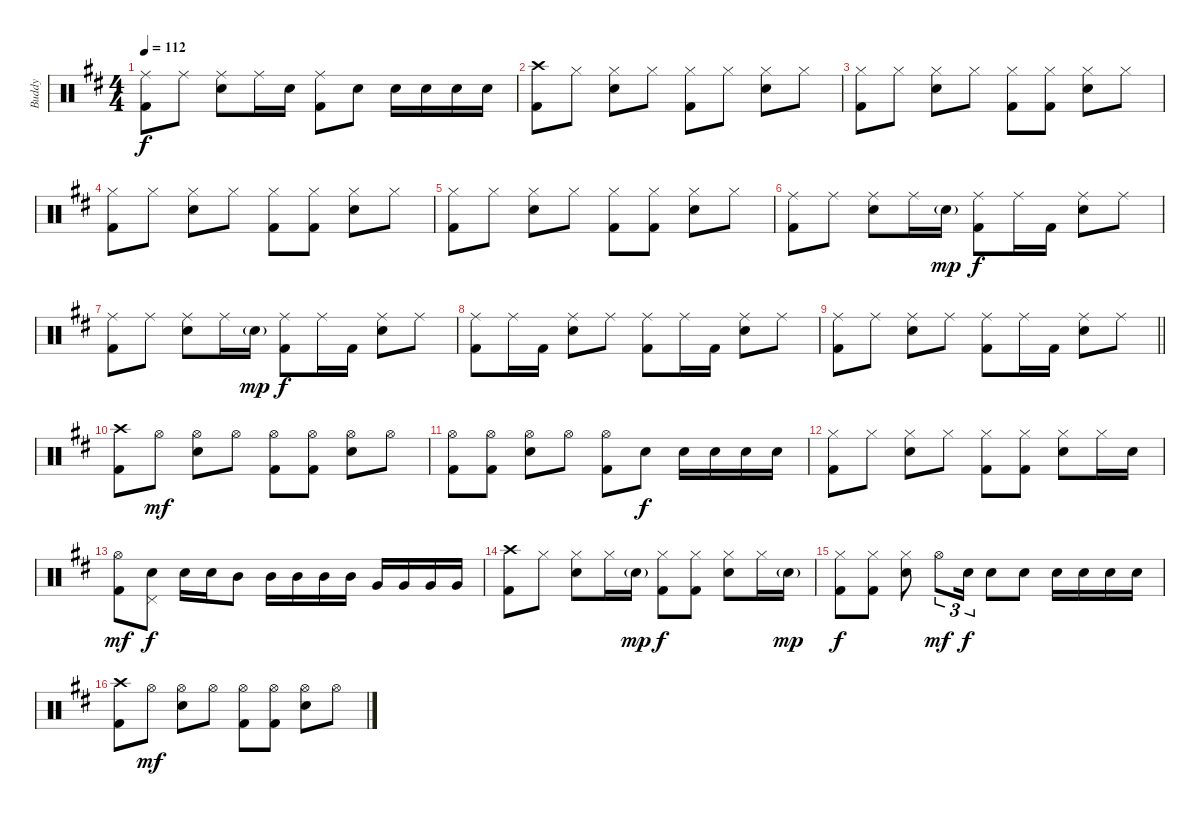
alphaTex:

\track ("Buddy " "Buddy ") {instrument percussion}
\staff {score}
\articulation defaults
\ts (4 4)
\tempo 112
\clef neutral
\ks d
("Ride (middle)" "Kick (hit) 2").8{dy f} "Ride (middle)".8 ("Ride (middle)" "Snare (hit) 2").8 "Ride (middle)".16 "Snare (hit) 2".16 ("Ride (middle)" "Kick (hit) 2").8 "Snare (hit) 2".8 "Snare (hit) 2".16 "Snare (hit) 2".16 "Snare (hit) 2".16 "Snare (hit) 2".16 |
("Crash high (hit)" "Kick (hit) 2").8 "Hi-Hat (closed)".8 ("Hi-Hat (closed)" "Snare (hit) 2").8 "Hi-Hat (closed)".8 ("Hi-Hat (closed)" "Kick (hit) 2").8 "Hi-Hat (closed)".8 ("Hi-Hat (closed)" "Snare (hit) 2").8 "Hi-Hat (closed)".8 |
("Hi-Hat (closed)" "Kick (hit) 2").8 "Hi-Hat (closed)".8 ("Hi-Hat (closed)" "Snare (hit) 2").8 "Hi-Hat (closed)".8 ("Hi-Hat (closed)" "Kick (hit) 2").8 ("Hi-Hat (closed)" "Kick (hit) 2").8 ("Hi-Hat (closed)" "Snare (hit) 2").8 "Hi-Hat (closed)".8 |
("Hi-Hat (closed)" "Kick (hit) 2").8 "Hi-Hat (closed)".8 ("Hi-Hat (closed)" "Snare (hit) 2").8 "Hi-Hat (closed)".8 ("Hi-Hat (closed)" "Kick (hit) 2").8 ("Hi-Hat (closed)" "Kick (hit) 2").8 ("Hi-Hat (closed)" "Snare (hit) 2").8 "Hi-Hat (closed)".8 |
("Hi-Hat (closed)" "Kick (hit) 2").8 "Hi-Hat (closed)".8 ("Hi-Hat (closed)" "Snare (hit) 2").8 "Hi-Hat (closed)".8 ("Hi-Hat (closed)" "Kick (hit) 2").8 ("Hi-Hat (closed)" "Kick (hit) 2").8 ("Hi-Hat (closed)" "Snare (hit) 2").8 "Hi-Hat (closed)".8 |
("Ride (middle)" "Kick (hit) 2").8 "Ride (middle)".8 ("Ride (middle)" "Snare (hit) 2").8 "Ride (middle)".16 "Snare (hit) 2"{g}.16{dy mp} ("Ride (middle)" "Kick (hit) 2").8{dy f} "Ride (middle)".16 "Kick (hit) 2".16 ("Ride (middle)" "Snare (hit) 2").8 "Ride (middle)".8 |
("Ride (middle)" "Kick (hit) 2").8 "Ride (middle)".8 ("Ride (middle)" "Snare (hit) 2").8 "Ride (middle)".16 "Snare (hit) 2"{g}.16{dy mp} ("Ride (middle)" "Kick (hit) 2").8{dy f} "Ride (middle)".16 "Kick (hit) 2".16 ("Ride (middle)" "Snare (hit) 2").8 "Ride (middle)".8 |
("Ride (middle)" "Kick (hit) 2").8 "Ride (middle)".16 "Kick (hit) 2".16 ("Ride (middle)" "Snare (hit) 2").8 "Ride (middle)".8 ("Ride (middle)" "Kick (hit) 2").8 "Ride (middle)".16 "Kick (hit) 2".16 ("Ride (middle)" "Snare (hit) 2").8 "Ride (middle)".8 |
\barLineRight lightlight
("Ride (middle)" "Kick (hit) 2").8 "Ride (middle)".8 ("Ride (middle)" "Snare (hit) 2").8 "Ride (middle)".8 ("Ride (middle)" "Kick (hit) 2").8 "Ride (middle)".16 "Kick (hit) 2".16 ("Ride (middle)" "Snare (hit) 2").8 "Ride (middle)".8 |
("Crash high (hit)" "Kick (hit) 2").8 "Hi-Hat (open)".8{dy mf} ("Hi-Hat (open)" "Snare (hit) 2").8 "Hi-Hat (open)".8 ("Hi-Hat (open)" "Kick (hit) 2").8 ("Hi-Hat (open)" "Kick (hit) 2").8 ("Hi-Hat (open)" "Snare (hit) 2").8 "Hi-Hat (open)".8 |
("Hi-Hat (open)" "Kick (hit) 2").8 ("Hi-Hat (open)" "Kick (hit) 2").8 ("Hi-Hat (open)" "Snare (hit) 2").8 "Hi-Hat (open)".8 ("Hi-Hat (open)" "Kick (hit) 2").8 "Snare (hit) 2".8{dy f} "Snare (hit) 2".16 "Snare (hit) 2".16 "Snare (hit) 2".16 "Snare (hit) 2".16 |
("Hi-Hat (closed)" "Kick (hit) 2").8 "Hi-Hat (closed)".8 ("Hi-Hat (closed)" "Snare (hit) 2").8 "Hi-Hat (closed)".8 ("Hi-Hat (closed)" "Kick (hit) 2").8 ("Hi-Hat (closed)" "Kick (hit) 2").8 ("Hi-Hat (closed)" "Snare (hit) 2").8 "Hi-Hat (closed)".16 "Snare (hit) 2".16 |
("Hi-Hat (open)" "Kick (hit) 2").8{dy mf} ("Snare (hit) 2" "Pedal Hi-Hat (hit)").8{dy f} "Snare (hit) 2".16 "Snare (hit) 2".16 "Mid Tom (hit)".8 "Mid Tom (hit)".16 "Mid Tom (hit)".16 "Mid Tom (hit)".16 "Mid Tom (hit)".16 "Very Low Tom (hit)".16 "Very Low Tom (hit)".16 "Very Low Tom (hit)".16 "Very Low Tom (hit)".16 |
("Crash high (hit)" "Kick (hit) 2").8 "Hi-Hat (closed)".8 ("Hi-Hat (closed)" "Snare (hit) 2").8 "Hi-Hat (closed)".16 "Snare (hit) 2"{g}.16{dy mp} ("Hi-Hat (closed)" "Kick (hit) 2").8{dy f} ("Hi-Hat (closed)" "Kick (hit) 2").8 ("Hi-Hat (closed)" "Snare (hit) 2").8 "Hi-Hat (closed)".16 "Snare (hit) 2"{g}.16{dy mp} |
("Hi-Hat (closed)" "Kick (hit) 2").8{dy f} ("Hi-Hat (closed)" "Kick (hit) 2").8 ("Hi-Hat (closed)" "Snare (hit) 2").8 "Hi-Hat (open)".8{tu (3 2) dy mf} "Snare (hit) 2".16{tu (3 2) dy f} "Snare (hit) 2".8 "Snare (hit) 2".8 "Snare (hit) 2".16 "Snare (hit) 2".16 "Snare (hit) 2".16 "Snare (hit) 2".16 |
("Crash high (hit)" "Kick (hit) 2").8 "Hi-Hat (open)".8{dy mf} ("Hi-Hat (open)" "Snare (hit) 2").8 "Hi-Hat (open)".8 ("Hi-Hat (open)" "Kick (hit) 2").8 ("Hi-Hat (open)" "Kick (hit) 2").8 ("Hi-Hat (open)" "Snare (hit) 2").8 "Hi-Hat (open)".8
